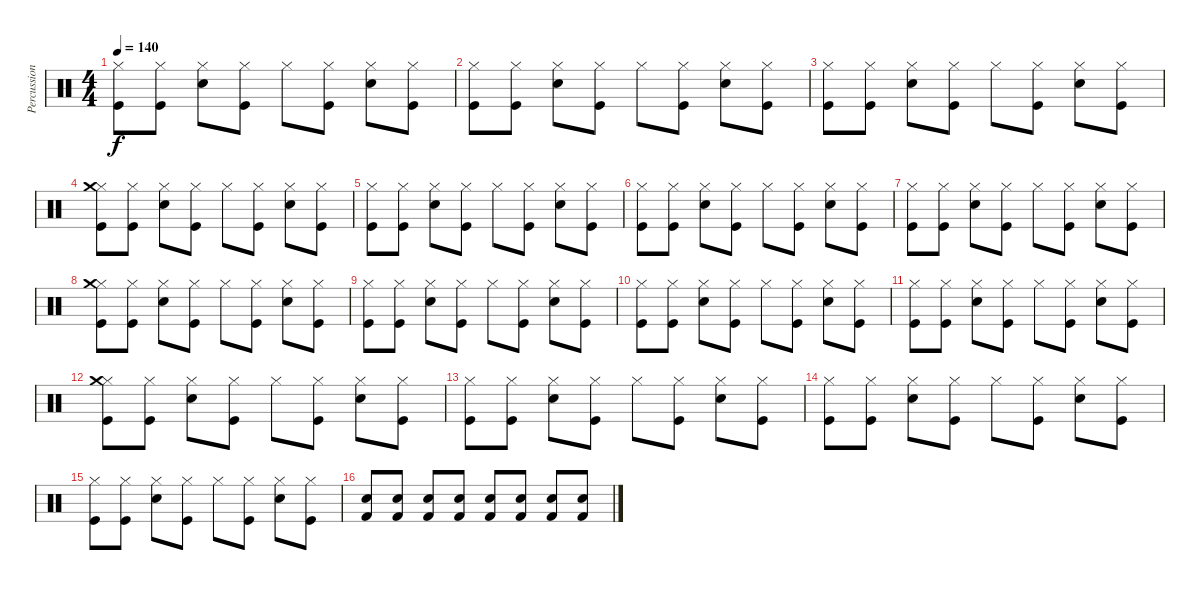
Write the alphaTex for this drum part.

\track ("Percussion" "Percussion") {instrument percussion}
\staff {score}
\articulation defaults
\ts (4 4)
\tempo 140
\clef neutral
\ks c
("Kick (hit)" "Hi-Hat (closed)").8{dy f} ("Kick (hit)" "Hi-Hat (closed)").8 ("Electric Snare (hit)" "Hi-Hat (closed)").8 ("Kick (hit)" "Hi-Hat (closed)").8 "Hi-Hat (closed)".8 ("Kick (hit)" "Hi-Hat (closed)").8 ("Electric Snare (hit)" "Hi-Hat (closed)").8 ("Kick (hit)" "Hi-Hat (closed)").8 |
("Kick (hit)" "Hi-Hat (closed)").8 ("Kick (hit)" "Hi-Hat (closed)").8 ("Electric Snare (hit)" "Hi-Hat (closed)").8 ("Kick (hit)" "Hi-Hat (closed)").8 "Hi-Hat (closed)".8 ("Kick (hit)" "Hi-Hat (closed)").8 ("Electric Snare (hit)" "Hi-Hat (closed)").8 ("Kick (hit)" "Hi-Hat (closed)").8 |
("Kick (hit)" "Hi-Hat (closed)").8 ("Kick (hit)" "Hi-Hat (closed)").8 ("Electric Snare (hit)" "Hi-Hat (closed)").8 ("Kick (hit)" "Hi-Hat (closed)").8 "Hi-Hat (closed)".8 ("Kick (hit)" "Hi-Hat (closed)").8 ("Electric Snare (hit)" "Hi-Hat (closed)").8 ("Kick (hit)" "Hi-Hat (closed)").8 |
("Kick (hit)" "Hi-Hat (closed)" "Crash medium (hit)").8 ("Kick (hit)" "Hi-Hat (closed)").8 ("Electric Snare (hit)" "Hi-Hat (closed)").8 ("Kick (hit)" "Hi-Hat (closed)").8 "Hi-Hat (closed)".8 ("Kick (hit)" "Hi-Hat (closed)").8 ("Electric Snare (hit)" "Hi-Hat (closed)").8 ("Kick (hit)" "Hi-Hat (closed)").8 |
("Kick (hit)" "Hi-Hat (closed)").8 ("Kick (hit)" "Hi-Hat (closed)").8 ("Electric Snare (hit)" "Hi-Hat (closed)").8 ("Kick (hit)" "Hi-Hat (closed)").8 "Hi-Hat (closed)".8 ("Kick (hit)" "Hi-Hat (closed)").8 ("Electric Snare (hit)" "Hi-Hat (closed)").8 ("Kick (hit)" "Hi-Hat (closed)").8 |
("Kick (hit)" "Hi-Hat (closed)").8 ("Kick (hit)" "Hi-Hat (closed)").8 ("Electric Snare (hit)" "Hi-Hat (closed)").8 ("Kick (hit)" "Hi-Hat (closed)").8 "Hi-Hat (closed)".8 ("Kick (hit)" "Hi-Hat (closed)").8 ("Electric Snare (hit)" "Hi-Hat (closed)").8 ("Kick (hit)" "Hi-Hat (closed)").8 |
("Kick (hit)" "Hi-Hat (closed)").8 ("Kick (hit)" "Hi-Hat (closed)").8 ("Electric Snare (hit)" "Hi-Hat (closed)").8 ("Kick (hit)" "Hi-Hat (closed)").8 "Hi-Hat (closed)".8 ("Kick (hit)" "Hi-Hat (closed)").8 ("Electric Snare (hit)" "Hi-Hat (closed)").8 ("Kick (hit)" "Hi-Hat (closed)").8 |
("Kick (hit)" "Hi-Hat (closed)" "Crash medium (hit)").8 ("Kick (hit)" "Hi-Hat (closed)").8 ("Electric Snare (hit)" "Hi-Hat (closed)").8 ("Kick (hit)" "Hi-Hat (closed)").8 "Hi-Hat (closed)".8 ("Kick (hit)" "Hi-Hat (closed)").8 ("Electric Snare (hit)" "Hi-Hat (closed)").8 ("Kick (hit)" "Hi-Hat (closed)").8 |
("Kick (hit)" "Hi-Hat (closed)").8 ("Kick (hit)" "Hi-Hat (closed)").8 ("Electric Snare (hit)" "Hi-Hat (closed)").8 ("Kick (hit)" "Hi-Hat (closed)").8 "Hi-Hat (closed)".8 ("Kick (hit)" "Hi-Hat (closed)").8 ("Electric Snare (hit)" "Hi-Hat (closed)").8 ("Kick (hit)" "Hi-Hat (closed)").8 |
("Kick (hit)" "Hi-Hat (closed)").8 ("Kick (hit)" "Hi-Hat (closed)").8 ("Electric Snare (hit)" "Hi-Hat (closed)").8 ("Kick (hit)" "Hi-Hat (closed)").8 "Hi-Hat (closed)".8 ("Kick (hit)" "Hi-Hat (closed)").8 ("Electric Snare (hit)" "Hi-Hat (closed)").8 ("Kick (hit)" "Hi-Hat (closed)").8 |
("Kick (hit)" "Hi-Hat (closed)").8 ("Kick (hit)" "Hi-Hat (closed)").8 ("Electric Snare (hit)" "Hi-Hat (closed)").8 ("Kick (hit)" "Hi-Hat (closed)").8 "Hi-Hat (closed)".8 ("Kick (hit)" "Hi-Hat (closed)").8 ("Electric Snare (hit)" "Hi-Hat (closed)").8 ("Kick (hit)" "Hi-Hat (closed)").8 |
("Kick (hit)" "Hi-Hat (closed)" "Crash medium (hit)").8 ("Kick (hit)" "Hi-Hat (closed)").8 ("Electric Snare (hit)" "Hi-Hat (closed)").8 ("Kick (hit)" "Hi-Hat (closed)").8 "Hi-Hat (closed)".8 ("Kick (hit)" "Hi-Hat (closed)").8 ("Electric Snare (hit)" "Hi-Hat (closed)").8 ("Kick (hit)" "Hi-Hat (closed)").8 |
("Kick (hit)" "Hi-Hat (closed)").8 ("Kick (hit)" "Hi-Hat (closed)").8 ("Electric Snare (hit)" "Hi-Hat (closed)").8 ("Kick (hit)" "Hi-Hat (closed)").8 "Hi-Hat (closed)".8 ("Kick (hit)" "Hi-Hat (closed)").8 ("Electric Snare (hit)" "Hi-Hat (closed)").8 ("Kick (hit)" "Hi-Hat (closed)").8 |
("Kick (hit)" "Hi-Hat (closed)").8 ("Kick (hit)" "Hi-Hat (closed)").8 ("Electric Snare (hit)" "Hi-Hat (closed)").8 ("Kick (hit)" "Hi-Hat (closed)").8 "Hi-Hat (closed)".8 ("Kick (hit)" "Hi-Hat (closed)").8 ("Electric Snare (hit)" "Hi-Hat (closed)").8 ("Kick (hit)" "Hi-Hat (closed)").8 |
("Kick (hit)" "Hi-Hat (closed)").8 ("Kick (hit)" "Hi-Hat (closed)").8 ("Electric Snare (hit)" "Hi-Hat (closed)").8 ("Kick (hit)" "Hi-Hat (closed)").8 "Hi-Hat (closed)".8 ("Kick (hit)" "Hi-Hat (closed)").8 ("Electric Snare (hit)" "Hi-Hat (closed)").8 ("Kick (hit)" "Hi-Hat (closed)").8 |
("Snare (hit) 2" "Kick (hit) 2").8 ("Snare (hit) 2" "Kick (hit) 2").8 ("Snare (hit) 2" "Kick (hit) 2").8 ("Snare (hit) 2" "Kick (hit) 2").8 ("Snare (hit) 2" "Kick (hit) 2").8 ("Snare (hit) 2" "Kick (hit) 2").8 ("Snare (hit) 2" "Kick (hit) 2").8 ("Snare (hit) 2" "Kick (hit) 2").8
